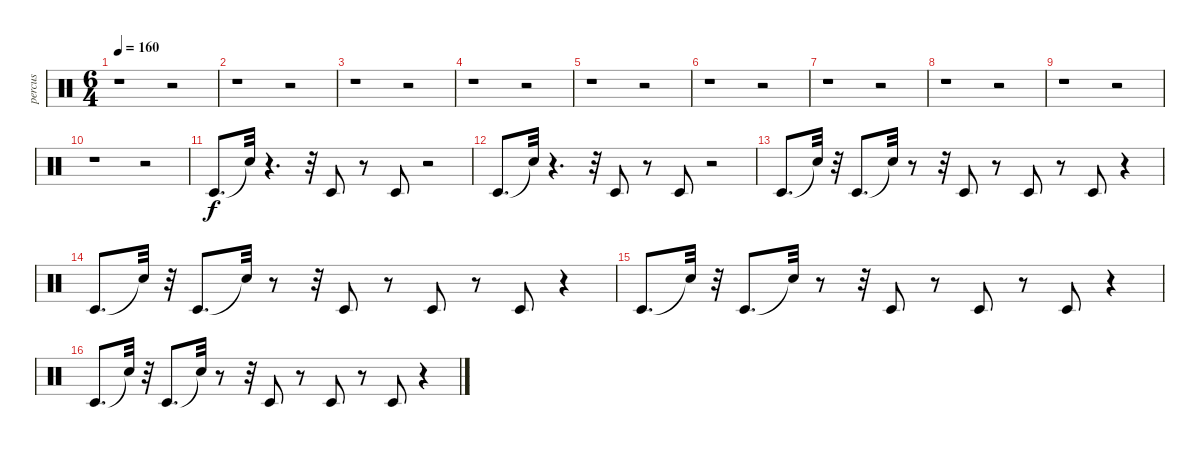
\track ("percus" "percus") {instrument percussion}
\staff {score}
\articulation defaults
\ts (6 4)
\tempo 160
\clef neutral
\ks c
r.1{dy f} r.2 |
r.1 r.2 |
r.1 r.2 |
r.1 r.2 |
r.1 r.2 |
r.1 r.2 |
r.1 r.2 |
r.1 r.2 |
r.1 r.2 |
r.1 r.2 |
"Timbale low (hit)".8{d} "Snare (hit)"{t}.32 r.4{d} r.32 "Timbale low (hit)".8 r.8 "Timbale low (hit)".8 r.2 |
"Timbale low (hit)".8{d} "Snare (hit)"{t}.32 r.4{d} r.32 "Timbale low (hit)".8 r.8 "Timbale low (hit)".8 r.2 |
"Timbale low (hit)".8{d} "Snare (hit)"{t}.32 r.32 "Timbale low (hit)".8{d} "Snare (hit)"{t}.32 r.8 r.32 "Timbale low (hit)".8 r.8 "Timbale low (hit)".8 r.8 "Timbale low (hit)".8 r.4 |
"Timbale low (hit)".8{d} "Snare (hit)"{t}.32 r.32 "Timbale low (hit)".8{d} "Snare (hit)"{t}.32 r.8 r.32 "Timbale low (hit)".8 r.8 "Timbale low (hit)".8 r.8 "Timbale low (hit)".8 r.4 |
"Timbale low (hit)".8{d} "Snare (hit)"{t}.32 r.32 "Timbale low (hit)".8{d} "Snare (hit)"{t}.32 r.8 r.32 "Timbale low (hit)".8 r.8 "Timbale low (hit)".8 r.8 "Timbale low (hit)".8 r.4 |
"Timbale low (hit)".8{d} "Snare (hit)"{t}.32 r.32 "Timbale low (hit)".8{d} "Snare (hit)"{t}.32 r.8 r.32 "Timbale low (hit)".8 r.8 "Timbale low (hit)".8 r.8 "Timbale low (hit)".8 r.4
